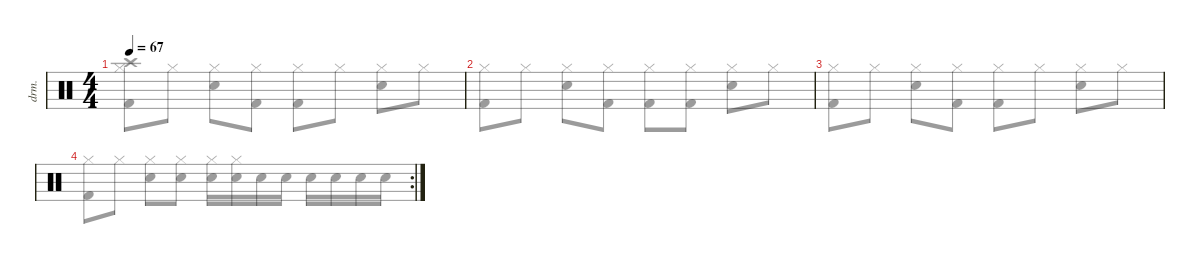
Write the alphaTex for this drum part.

\defaultSystemsLayout 4
\hideDynamics
\bracketExtendMode nobrackets
\otherSystemsTrackNameOrientation horizontal
\track ("Drumkit" "drm.") {instrument percussion}
\staff
\articulation defaults
\voice
\ts (4 4)
\tempo 67
\clef neutral
\ks c
|
|
|
\rc 2
|
\voice
\clef neutral
\ks c
("Hi-Hat (closed)" "Crash high (hit)" "Kick (hit) 2").8{dy mf} "Hi-Hat (closed)".8 ("Hi-Hat (closed)" "Electric Snare (hit)").8 ("Hi-Hat (closed)" "Kick (hit) 2").8 ("Kick (hit) 2" "Hi-Hat (closed)").8 "Hi-Hat (closed)".8 ("Hi-Hat (closed)" "Electric Snare (hit)").8 "Hi-Hat (closed)".8 |
("Hi-Hat (closed)" "Kick (hit) 2").8 "Hi-Hat (closed)".8 ("Hi-Hat (closed)" "Electric Snare (hit)").8 ("Hi-Hat (closed)" "Kick (hit) 2").8 ("Hi-Hat (closed)" "Kick (hit) 2").8 ("Hi-Hat (closed)" "Kick (hit) 2").8 ("Hi-Hat (closed)" "Electric Snare (hit)").8 "Hi-Hat (closed)".8 |
("Hi-Hat (closed)" "Kick (hit) 2").8 "Hi-Hat (closed)".8 ("Hi-Hat (closed)" "Electric Snare (hit)").8 ("Hi-Hat (closed)" "Kick (hit) 2").8 ("Hi-Hat (closed)" "Kick (hit) 2").8 "Hi-Hat (closed)".8 ("Hi-Hat (closed)" "Electric Snare (hit)").8 "Hi-Hat (closed)".8 |
("Hi-Hat (closed)" "Kick (hit) 2").8 "Hi-Hat (closed)".8 ("Hi-Hat (closed)" "Electric Snare (hit)").8 ("Hi-Hat (closed)" "Electric Snare (hit)").8 ("Hi-Hat (closed)" "Electric Snare (hit)").16 ("Hi-Hat (closed)" "Electric Snare (hit)").16 "Electric Snare (hit)".16 "Electric Snare (hit)".16 "Electric Snare (hit)".16 "Electric Snare (hit)".16 "Electric Snare (hit)".16 "Electric Snare (hit)".16 |
